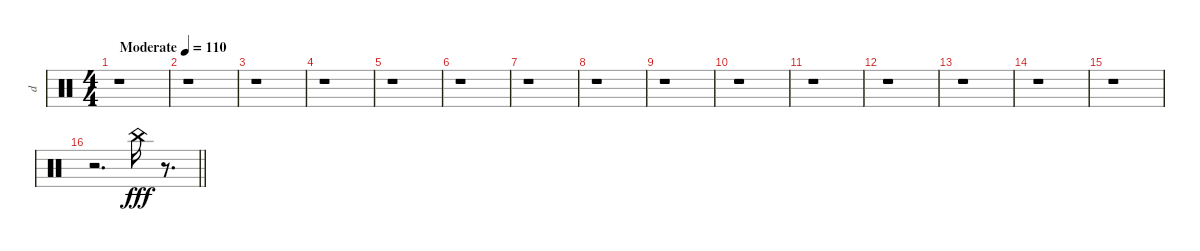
\track ("d" "d") {instrument percussion}
\staff {score}
\articulation defaults
\ts (4 4)
\tempo (110 "Moderate")
\clef neutral
\ks c
r.1{dy fff} |
r.1 |
r.1 |
r.1 |
r.1 |
r.1 |
r.1 |
r.1 |
r.1 |
r.1 |
r.1 |
r.1 |
r.1 |
r.1 |
r.1 |
\barLineRight lightlight
r.2{d} "China (hit)".16 r.8{d}
